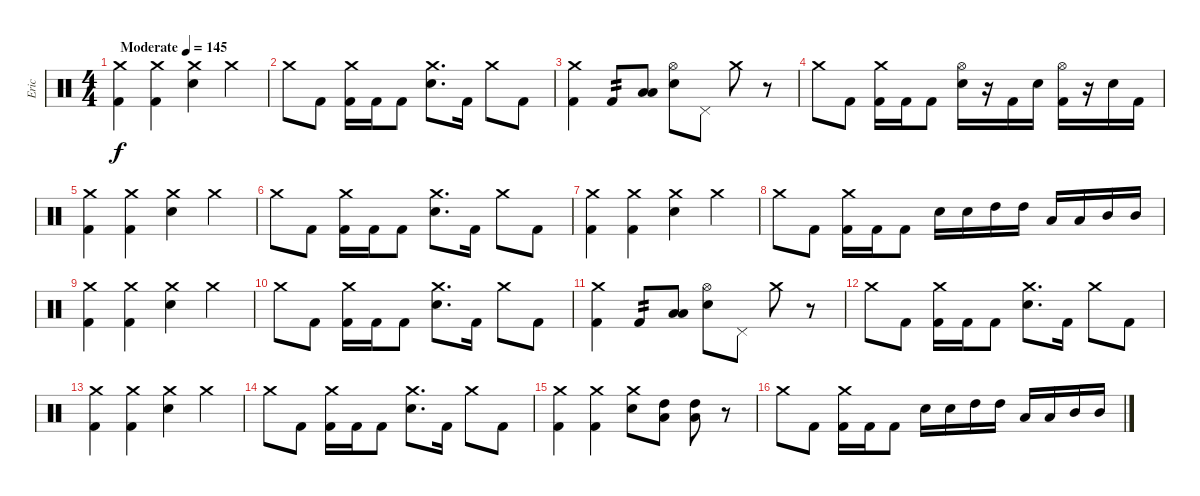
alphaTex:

\track ("Eric" "Eric") {instrument percussion}
\staff {score}
\articulation defaults
\ts (4 4)
\tempo (145 "Moderate")
\clef neutral
\ks c
("Crash medium (hit)" "Kick (hit) 2").4{dy f} ("Crash medium (hit)" "Kick (hit) 2").4 ("Crash medium (hit)" "Electric Snare (hit)").4 "Crash medium (hit)".4 |
"Crash medium (hit)".8 "Kick (hit) 2".8 ("Crash medium (hit)" "Kick (hit) 2").16 "Kick (hit) 2".16 "Kick (hit) 2".8 ("Crash medium (hit)" "Electric Snare (hit)").8{d} "Kick (hit) 2".16 "Crash medium (hit)".8 "Kick (hit) 2".8 |
("Crash medium (hit)" "Kick (hit) 2").4 "Kick (hit) 2".8{tp 2} ("Low Floor Tom (hit)" "Low Tom (hit)").8 ("Hi-Hat (open)" "Electric Snare (hit)").8 "Pedal Hi-Hat (hit)".8 "Crash medium (hit)".8 r.8 |
"Crash medium (hit)".8 "Kick (hit) 2".8 ("Crash medium (hit)" "Kick (hit) 2").16 "Kick (hit) 2".16 "Kick (hit) 2".8 ("Hi-Hat (open)" "Electric Snare (hit)").16 r.16 "Kick (hit) 2".16 "Electric Snare (hit)".16 ("Hi-Hat (open)" "Kick (hit) 2").16 r.16 "Electric Snare (hit)".16 "Kick (hit) 2".16 |
("Crash medium (hit)" "Kick (hit) 2").4 ("Crash medium (hit)" "Kick (hit) 2").4 ("Crash medium (hit)" "Electric Snare (hit)").4 "Crash medium (hit)".4 |
"Crash medium (hit)".8 "Kick (hit) 2".8 ("Crash medium (hit)" "Kick (hit) 2").16 "Kick (hit) 2".16 "Kick (hit) 2".8 ("Crash medium (hit)" "Electric Snare (hit)").8{d} "Kick (hit) 2".16 "Crash medium (hit)".8 "Kick (hit) 2".8 |
("Crash medium (hit)" "Kick (hit) 2").4 ("Crash medium (hit)" "Kick (hit) 2").4 ("Crash medium (hit)" "Electric Snare (hit)").4 "Crash medium (hit)".4 |
"Crash medium (hit)".8 "Kick (hit) 2".8 ("Crash medium (hit)" "Kick (hit) 2").16 "Kick (hit) 2".16 "Kick (hit) 2".8 "Electric Snare (hit)".16 "Electric Snare (hit)".16 "High Tom (hit)".16 "High Tom (hit)".16 "Low Tom (hit)".16 "Low Tom (hit)".16 "Mid Tom (hit)".16 "Mid Tom (hit)".16 |
("Crash medium (hit)" "Kick (hit) 2").4 ("Crash medium (hit)" "Kick (hit) 2").4 ("Crash medium (hit)" "Electric Snare (hit)").4 "Crash medium (hit)".4 |
"Crash medium (hit)".8 "Kick (hit) 2".8 ("Crash medium (hit)" "Kick (hit) 2").16 "Kick (hit) 2".16 "Kick (hit) 2".8 ("Crash medium (hit)" "Electric Snare (hit)").8{d} "Kick (hit) 2".16 "Crash medium (hit)".8 "Kick (hit) 2".8 |
("Crash medium (hit)" "Kick (hit) 2").4 "Kick (hit) 2".8{tp 2} ("Low Floor Tom (hit)" "Low Tom (hit)").8 ("Hi-Hat (open)" "Electric Snare (hit)").8 "Pedal Hi-Hat (hit)".8 "Crash medium (hit)".8 r.8 |
"Crash medium (hit)".8 "Kick (hit) 2".8 ("Crash medium (hit)" "Kick (hit) 2").16 "Kick (hit) 2".16 "Kick (hit) 2".8 ("Crash medium (hit)" "Electric Snare (hit)").8{d} "Kick (hit) 2".16 "Crash medium (hit)".8 "Kick (hit) 2".8 |
("Crash medium (hit)" "Kick (hit) 2").4 ("Crash medium (hit)" "Kick (hit) 2").4 ("Crash medium (hit)" "Electric Snare (hit)").4 "Crash medium (hit)".4 |
"Crash medium (hit)".8 "Kick (hit) 2".8 ("Crash medium (hit)" "Kick (hit) 2").16 "Kick (hit) 2".16 "Kick (hit) 2".8 ("Crash medium (hit)" "Electric Snare (hit)").8{d} "Kick (hit) 2".16 "Crash medium (hit)".8 "Kick (hit) 2".8 |
("Crash medium (hit)" "Kick (hit) 2").4 ("Crash medium (hit)" "Kick (hit) 2").4 ("Crash medium (hit)" "Electric Snare (hit)").8 ("Low Tom (hit)" "High Tom (hit)").8 ("Low Tom (hit)" "High Tom (hit)").8 r.8 |
"Crash medium (hit)".8 "Kick (hit) 2".8 ("Crash medium (hit)" "Kick (hit) 2").16 "Kick (hit) 2".16 "Kick (hit) 2".8 "Electric Snare (hit)".16 "Electric Snare (hit)".16 "High Tom (hit)".16 "High Tom (hit)".16 "Low Tom (hit)".16 "Low Tom (hit)".16 "Mid Tom (hit)".16 "Mid Tom (hit)".16
